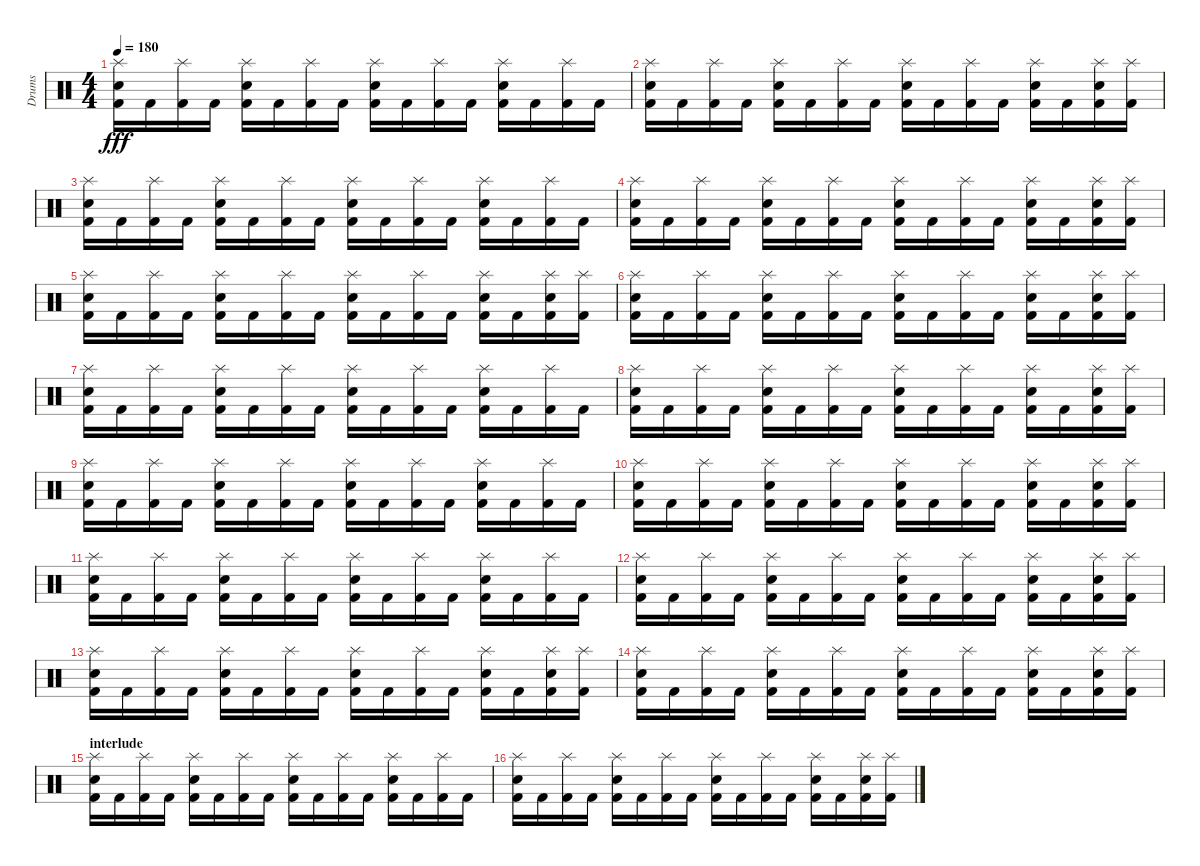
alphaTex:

\track ("Drums" "Drums") {instrument percussion}
\staff {score}
\articulation defaults
\ts (4 4)
\tempo 180
\clef neutral
\ks c
("Kick (hit) 2" "Electric Snare (hit)" "Splash (hit)").16{dy fff} "Kick (hit) 2".16 ("Kick (hit) 2" "Splash (hit)").16 "Kick (hit) 2".16 ("Kick (hit) 2" "Electric Snare (hit)" "Splash (hit)").16 "Kick (hit) 2".16 ("Kick (hit) 2" "Splash (hit)").16 "Kick (hit) 2".16 ("Kick (hit) 2" "Electric Snare (hit)" "Splash (hit)").16 "Kick (hit) 2".16 ("Kick (hit) 2" "Splash (hit)").16 "Kick (hit) 2".16 ("Kick (hit) 2" "Electric Snare (hit)" "Splash (hit)").16 "Kick (hit) 2".16 ("Kick (hit) 2" "Splash (hit)").16 "Kick (hit) 2".16 |
("Kick (hit) 2" "Electric Snare (hit)" "Splash (hit)").16 "Kick (hit) 2".16 ("Kick (hit) 2" "Splash (hit)").16 "Kick (hit) 2".16 ("Kick (hit) 2" "Electric Snare (hit)" "Splash (hit)").16 "Kick (hit) 2".16 ("Kick (hit) 2" "Splash (hit)").16 "Kick (hit) 2".16 ("Kick (hit) 2" "Electric Snare (hit)" "Splash (hit)").16 "Kick (hit) 2".16 ("Kick (hit) 2" "Splash (hit)").16 "Kick (hit) 2".16 ("Kick (hit) 2" "Electric Snare (hit)" "Splash (hit)").16 "Kick (hit) 2".16 ("Kick (hit) 2" "Electric Snare (hit)" "Splash (hit)").16 ("Kick (hit) 2" "Splash (hit)").16 |
("Kick (hit) 2" "Electric Snare (hit)" "Splash (hit)").16 "Kick (hit) 2".16 ("Kick (hit) 2" "Splash (hit)").16 "Kick (hit) 2".16 ("Kick (hit) 2" "Electric Snare (hit)" "Splash (hit)").16 "Kick (hit) 2".16 ("Kick (hit) 2" "Splash (hit)").16 "Kick (hit) 2".16 ("Kick (hit) 2" "Electric Snare (hit)" "Splash (hit)").16 "Kick (hit) 2".16 ("Kick (hit) 2" "Splash (hit)").16 "Kick (hit) 2".16 ("Kick (hit) 2" "Electric Snare (hit)" "Splash (hit)").16 "Kick (hit) 2".16 ("Kick (hit) 2" "Splash (hit)").16 "Kick (hit) 2".16 |
("Kick (hit) 2" "Electric Snare (hit)" "Splash (hit)").16 "Kick (hit) 2".16 ("Kick (hit) 2" "Splash (hit)").16 "Kick (hit) 2".16 ("Kick (hit) 2" "Electric Snare (hit)" "Splash (hit)").16 "Kick (hit) 2".16 ("Kick (hit) 2" "Splash (hit)").16 "Kick (hit) 2".16 ("Kick (hit) 2" "Electric Snare (hit)" "Splash (hit)").16 "Kick (hit) 2".16 ("Kick (hit) 2" "Splash (hit)").16 "Kick (hit) 2".16 ("Kick (hit) 2" "Electric Snare (hit)" "Splash (hit)").16 "Kick (hit) 2".16 ("Kick (hit) 2" "Electric Snare (hit)" "Splash (hit)").16 ("Kick (hit) 2" "Splash (hit)").16 |
("Kick (hit) 2" "Electric Snare (hit)" "Splash (hit)").16 "Kick (hit) 2".16 ("Kick (hit) 2" "Splash (hit)").16 "Kick (hit) 2".16 ("Kick (hit) 2" "Electric Snare (hit)" "Splash (hit)").16 "Kick (hit) 2".16 ("Kick (hit) 2" "Splash (hit)").16 "Kick (hit) 2".16 ("Kick (hit) 2" "Electric Snare (hit)" "Splash (hit)").16 "Kick (hit) 2".16 ("Kick (hit) 2" "Splash (hit)").16 "Kick (hit) 2".16 ("Kick (hit) 2" "Electric Snare (hit)" "Splash (hit)").16 "Kick (hit) 2".16 ("Kick (hit) 2" "Electric Snare (hit)" "Splash (hit)").16 ("Kick (hit) 2" "Splash (hit)").16 |
("Kick (hit) 2" "Electric Snare (hit)" "Splash (hit)").16 "Kick (hit) 2".16 ("Kick (hit) 2" "Splash (hit)").16 "Kick (hit) 2".16 ("Kick (hit) 2" "Electric Snare (hit)" "Splash (hit)").16 "Kick (hit) 2".16 ("Kick (hit) 2" "Splash (hit)").16 "Kick (hit) 2".16 ("Kick (hit) 2" "Electric Snare (hit)" "Splash (hit)").16 "Kick (hit) 2".16 ("Kick (hit) 2" "Splash (hit)").16 "Kick (hit) 2".16 ("Kick (hit) 2" "Electric Snare (hit)" "Splash (hit)").16 "Kick (hit) 2".16 ("Kick (hit) 2" "Electric Snare (hit)" "Splash (hit)").16 ("Kick (hit) 2" "Splash (hit)").16 |
("Kick (hit) 2" "Electric Snare (hit)" "Splash (hit)").16 "Kick (hit) 2".16 ("Kick (hit) 2" "Splash (hit)").16 "Kick (hit) 2".16 ("Kick (hit) 2" "Electric Snare (hit)" "Splash (hit)").16 "Kick (hit) 2".16 ("Kick (hit) 2" "Splash (hit)").16 "Kick (hit) 2".16 ("Kick (hit) 2" "Electric Snare (hit)" "Splash (hit)").16 "Kick (hit) 2".16 ("Kick (hit) 2" "Splash (hit)").16 "Kick (hit) 2".16 ("Kick (hit) 2" "Electric Snare (hit)" "Splash (hit)").16 "Kick (hit) 2".16 ("Kick (hit) 2" "Splash (hit)").16 "Kick (hit) 2".16 |
("Kick (hit) 2" "Electric Snare (hit)" "Splash (hit)").16 "Kick (hit) 2".16 ("Kick (hit) 2" "Splash (hit)").16 "Kick (hit) 2".16 ("Kick (hit) 2" "Electric Snare (hit)" "Splash (hit)").16 "Kick (hit) 2".16 ("Kick (hit) 2" "Splash (hit)").16 "Kick (hit) 2".16 ("Kick (hit) 2" "Electric Snare (hit)" "Splash (hit)").16 "Kick (hit) 2".16 ("Kick (hit) 2" "Splash (hit)").16 "Kick (hit) 2".16 ("Kick (hit) 2" "Electric Snare (hit)" "Splash (hit)").16 "Kick (hit) 2".16 ("Kick (hit) 2" "Electric Snare (hit)" "Splash (hit)").16 ("Kick (hit) 2" "Splash (hit)").16 |
("Kick (hit) 2" "Electric Snare (hit)" "Splash (hit)").16 "Kick (hit) 2".16 ("Kick (hit) 2" "Splash (hit)").16 "Kick (hit) 2".16 ("Kick (hit) 2" "Electric Snare (hit)" "Splash (hit)").16 "Kick (hit) 2".16 ("Kick (hit) 2" "Splash (hit)").16 "Kick (hit) 2".16 ("Kick (hit) 2" "Electric Snare (hit)" "Splash (hit)").16 "Kick (hit) 2".16 ("Kick (hit) 2" "Splash (hit)").16 "Kick (hit) 2".16 ("Kick (hit) 2" "Electric Snare (hit)" "Splash (hit)").16 "Kick (hit) 2".16 ("Kick (hit) 2" "Splash (hit)").16 "Kick (hit) 2".16 |
("Kick (hit) 2" "Electric Snare (hit)" "Splash (hit)").16 "Kick (hit) 2".16 ("Kick (hit) 2" "Splash (hit)").16 "Kick (hit) 2".16 ("Kick (hit) 2" "Electric Snare (hit)" "Splash (hit)").16 "Kick (hit) 2".16 ("Kick (hit) 2" "Splash (hit)").16 "Kick (hit) 2".16 ("Kick (hit) 2" "Electric Snare (hit)" "Splash (hit)").16 "Kick (hit) 2".16 ("Kick (hit) 2" "Splash (hit)").16 "Kick (hit) 2".16 ("Kick (hit) 2" "Electric Snare (hit)" "Splash (hit)").16 "Kick (hit) 2".16 ("Kick (hit) 2" "Electric Snare (hit)" "Splash (hit)").16 ("Kick (hit) 2" "Splash (hit)").16 |
("Kick (hit) 2" "Electric Snare (hit)" "Splash (hit)").16 "Kick (hit) 2".16 ("Kick (hit) 2" "Splash (hit)").16 "Kick (hit) 2".16 ("Kick (hit) 2" "Electric Snare (hit)" "Splash (hit)").16 "Kick (hit) 2".16 ("Kick (hit) 2" "Splash (hit)").16 "Kick (hit) 2".16 ("Kick (hit) 2" "Electric Snare (hit)" "Splash (hit)").16 "Kick (hit) 2".16 ("Kick (hit) 2" "Splash (hit)").16 "Kick (hit) 2".16 ("Kick (hit) 2" "Electric Snare (hit)" "Splash (hit)").16 "Kick (hit) 2".16 ("Kick (hit) 2" "Splash (hit)").16 "Kick (hit) 2".16 |
("Kick (hit) 2" "Electric Snare (hit)" "Splash (hit)").16 "Kick (hit) 2".16 ("Kick (hit) 2" "Splash (hit)").16 "Kick (hit) 2".16 ("Kick (hit) 2" "Electric Snare (hit)" "Splash (hit)").16 "Kick (hit) 2".16 ("Kick (hit) 2" "Splash (hit)").16 "Kick (hit) 2".16 ("Kick (hit) 2" "Electric Snare (hit)" "Splash (hit)").16 "Kick (hit) 2".16 ("Kick (hit) 2" "Splash (hit)").16 "Kick (hit) 2".16 ("Kick (hit) 2" "Electric Snare (hit)" "Splash (hit)").16 "Kick (hit) 2".16 ("Kick (hit) 2" "Electric Snare (hit)" "Splash (hit)").16 ("Kick (hit) 2" "Splash (hit)").16 |
("Kick (hit) 2" "Electric Snare (hit)" "Splash (hit)").16 "Kick (hit) 2".16 ("Kick (hit) 2" "Splash (hit)").16 "Kick (hit) 2".16 ("Kick (hit) 2" "Electric Snare (hit)" "Splash (hit)").16 "Kick (hit) 2".16 ("Kick (hit) 2" "Splash (hit)").16 "Kick (hit) 2".16 ("Kick (hit) 2" "Electric Snare (hit)" "Splash (hit)").16 "Kick (hit) 2".16 ("Kick (hit) 2" "Splash (hit)").16 "Kick (hit) 2".16 ("Kick (hit) 2" "Electric Snare (hit)" "Splash (hit)").16 "Kick (hit) 2".16 ("Kick (hit) 2" "Electric Snare (hit)" "Splash (hit)").16 ("Kick (hit) 2" "Splash (hit)").16 |
("Kick (hit) 2" "Electric Snare (hit)" "Splash (hit)").16 "Kick (hit) 2".16 ("Kick (hit) 2" "Splash (hit)").16 "Kick (hit) 2".16 ("Kick (hit) 2" "Electric Snare (hit)" "Splash (hit)").16 "Kick (hit) 2".16 ("Kick (hit) 2" "Splash (hit)").16 "Kick (hit) 2".16 ("Kick (hit) 2" "Electric Snare (hit)" "Splash (hit)").16 "Kick (hit) 2".16 ("Kick (hit) 2" "Splash (hit)").16 "Kick (hit) 2".16 ("Kick (hit) 2" "Electric Snare (hit)" "Splash (hit)").16 "Kick (hit) 2".16 ("Kick (hit) 2" "Electric Snare (hit)" "Splash (hit)").16 ("Kick (hit) 2" "Splash (hit)").16 |
\section ("" "interlude")
("Kick (hit) 2" "Electric Snare (hit)" "Splash (hit)").16 "Kick (hit) 2".16 ("Kick (hit) 2" "Splash (hit)").16 "Kick (hit) 2".16 ("Kick (hit) 2" "Electric Snare (hit)" "Splash (hit)").16 "Kick (hit) 2".16 ("Kick (hit) 2" "Splash (hit)").16 "Kick (hit) 2".16 ("Kick (hit) 2" "Electric Snare (hit)" "Splash (hit)").16 "Kick (hit) 2".16 ("Kick (hit) 2" "Splash (hit)").16 "Kick (hit) 2".16 ("Kick (hit) 2" "Electric Snare (hit)" "Splash (hit)").16 "Kick (hit) 2".16 ("Kick (hit) 2" "Splash (hit)").16 "Kick (hit) 2".16 |
("Kick (hit) 2" "Electric Snare (hit)" "Splash (hit)").16 "Kick (hit) 2".16 ("Kick (hit) 2" "Splash (hit)").16 "Kick (hit) 2".16 ("Kick (hit) 2" "Electric Snare (hit)" "Splash (hit)").16 "Kick (hit) 2".16 ("Kick (hit) 2" "Splash (hit)").16 "Kick (hit) 2".16 ("Kick (hit) 2" "Electric Snare (hit)" "Splash (hit)").16 "Kick (hit) 2".16 ("Kick (hit) 2" "Splash (hit)").16 "Kick (hit) 2".16 ("Kick (hit) 2" "Electric Snare (hit)" "Splash (hit)").16 "Kick (hit) 2".16 ("Kick (hit) 2" "Electric Snare (hit)" "Splash (hit)").16 ("Kick (hit) 2" "Splash (hit)").16
